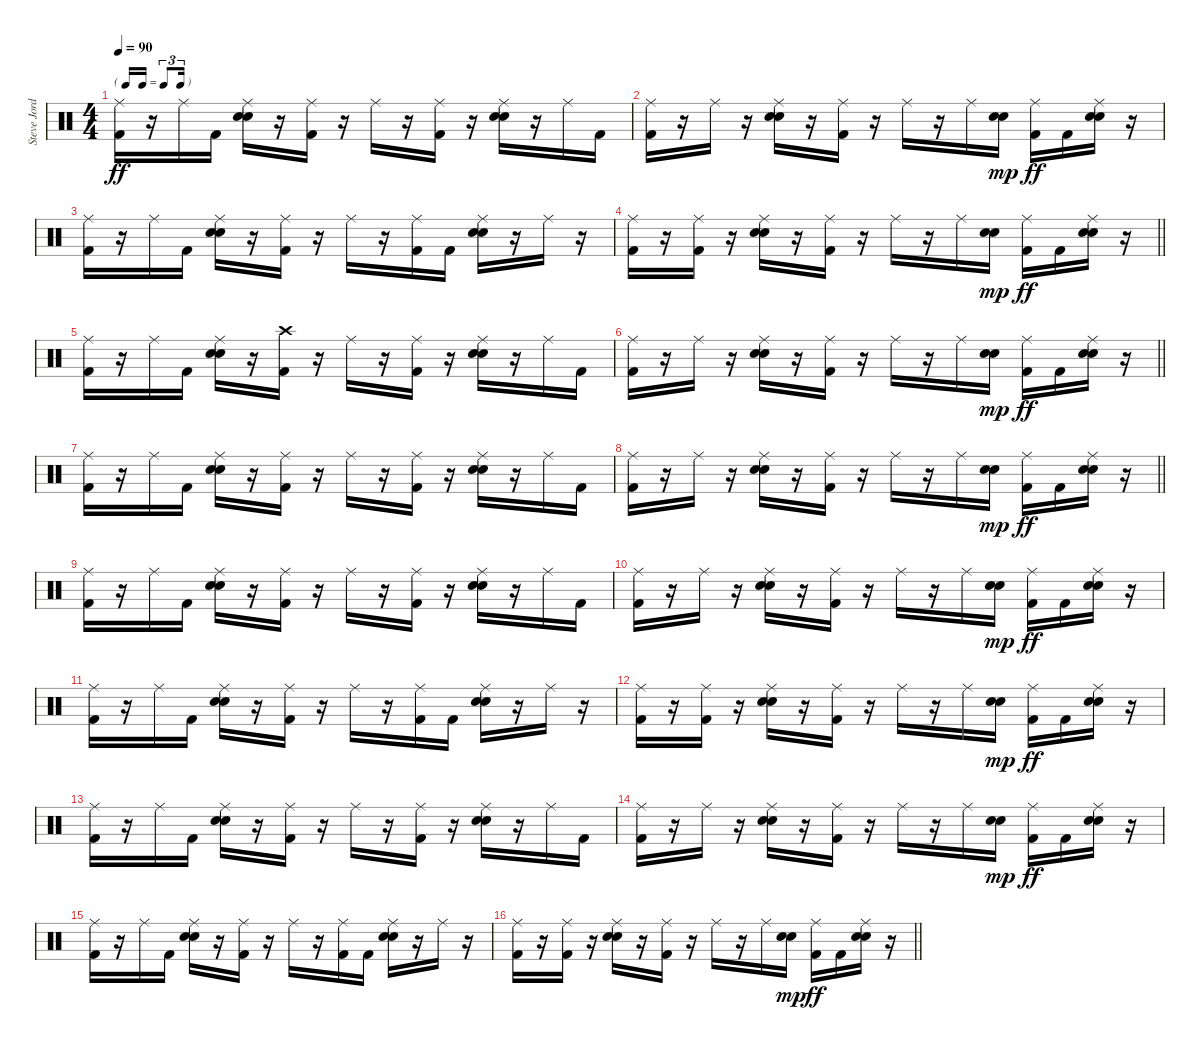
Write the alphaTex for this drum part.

\track ("Steve Jordan" "Steve Jord") {instrument percussion}
\staff {score}
\articulation defaults
\ts (4 4)
\tf triplet16th
\tempo 90
\clef neutral
\ks c
("Ride (middle)" "Kick (hit) 2").16{dy ff} r.16 "Ride (middle)".16 "Kick (hit) 2".16 ("Ride (middle)" "Electric Snare (hit)" "Snare (hit) 2").16 r.16 ("Ride (middle)" "Kick (hit) 2").16 r.16 "Ride (middle)".16 r.16 ("Ride (middle)" "Kick (hit) 2").16 r.16 ("Ride (middle)" "Electric Snare (hit)" "Snare (hit) 2").16 r.16 "Ride (middle)".16 "Kick (hit) 2".16 |
("Ride (middle)" "Kick (hit) 2").16 r.16 "Ride (middle)".16 r.16 ("Ride (middle)" "Electric Snare (hit)" "Snare (hit) 2").16 r.16 ("Ride (middle)" "Kick (hit) 2").16 r.16 "Ride (middle)".16 r.16 "Ride (middle)".16 ("Electric Snare (hit)" "Snare (hit) 2").16{dy mp} ("Ride (middle)" "Kick (hit) 2").16{dy ff} "Kick (hit) 2".16 ("Ride (middle)" "Electric Snare (hit)" "Snare (hit) 2").16 r.16 |
("Ride (middle)" "Kick (hit) 2").16 r.16 "Ride (middle)".16 "Kick (hit) 2".16 ("Ride (middle)" "Electric Snare (hit)" "Snare (hit) 2").16 r.16 ("Ride (middle)" "Kick (hit) 2").16 r.16 "Ride (middle)".16 r.16 ("Ride (middle)" "Kick (hit) 2").16 "Kick (hit) 2".16 ("Ride (middle)" "Electric Snare (hit)" "Snare (hit) 2").16 r.16 "Ride (middle)".16 r.16 |
\barLineRight lightlight
("Ride (middle)" "Kick (hit) 2").16 r.16 ("Ride (middle)" "Kick (hit) 2").16 r.16 ("Ride (middle)" "Electric Snare (hit)" "Snare (hit) 2").16 r.16 ("Ride (middle)" "Kick (hit) 2").16 r.16 "Ride (middle)".16 r.16 "Ride (middle)".16 ("Electric Snare (hit)" "Snare (hit) 2").16{dy mp} ("Ride (middle)" "Kick (hit) 2").16{dy ff} "Kick (hit) 2".16 ("Ride (middle)" "Electric Snare (hit)" "Snare (hit) 2").16 r.16 |
("Ride (middle)" "Kick (hit) 2").16 r.16 "Ride (middle)".16 "Kick (hit) 2".16 ("Ride (middle)" "Electric Snare (hit)" "Snare (hit) 2").16 r.16 ("Crash high (hit)" "Kick (hit) 2").16 r.16 "Ride (middle)".16 r.16 ("Ride (middle)" "Kick (hit) 2").16 r.16 ("Ride (middle)" "Electric Snare (hit)" "Snare (hit) 2").16 r.16 "Ride (middle)".16 "Kick (hit) 2".16 |
\barLineRight lightlight
("Ride (middle)" "Kick (hit) 2").16 r.16 "Ride (middle)".16 r.16 ("Ride (middle)" "Electric Snare (hit)" "Snare (hit) 2").16 r.16 ("Ride (middle)" "Kick (hit) 2").16 r.16 "Ride (middle)".16 r.16 "Ride (middle)".16 ("Electric Snare (hit)" "Snare (hit) 2").16{dy mp} ("Ride (middle)" "Kick (hit) 2").16{dy ff} "Kick (hit) 2".16 ("Ride (middle)" "Electric Snare (hit)" "Snare (hit) 2").16 r.16 |
("Ride (middle)" "Kick (hit) 2").16 r.16 "Ride (middle)".16 "Kick (hit) 2".16 ("Ride (middle)" "Electric Snare (hit)" "Snare (hit) 2").16 r.16 ("Ride (middle)" "Kick (hit) 2").16 r.16 "Ride (middle)".16 r.16 ("Ride (middle)" "Kick (hit) 2").16 r.16 ("Ride (middle)" "Electric Snare (hit)" "Snare (hit) 2").16 r.16 "Ride (middle)".16 "Kick (hit) 2".16 |
\barLineRight lightlight
("Ride (middle)" "Kick (hit) 2").16 r.16 "Ride (middle)".16 r.16 ("Ride (middle)" "Electric Snare (hit)" "Snare (hit) 2").16 r.16 ("Ride (middle)" "Kick (hit) 2").16 r.16 "Ride (middle)".16 r.16 "Ride (middle)".16 ("Electric Snare (hit)" "Snare (hit) 2").16{dy mp} ("Ride (middle)" "Kick (hit) 2").16{dy ff} "Kick (hit) 2".16 ("Ride (middle)" "Electric Snare (hit)" "Snare (hit) 2").16 r.16 |
("Ride (middle)" "Kick (hit) 2").16 r.16 "Ride (middle)".16 "Kick (hit) 2".16 ("Ride (middle)" "Electric Snare (hit)" "Snare (hit) 2").16 r.16 ("Ride (middle)" "Kick (hit) 2").16 r.16 "Ride (middle)".16 r.16 ("Ride (middle)" "Kick (hit) 2").16 r.16 ("Ride (middle)" "Electric Snare (hit)" "Snare (hit) 2").16 r.16 "Ride (middle)".16 "Kick (hit) 2".16 |
("Ride (middle)" "Kick (hit) 2").16 r.16 "Ride (middle)".16 r.16 ("Ride (middle)" "Electric Snare (hit)" "Snare (hit) 2").16 r.16 ("Ride (middle)" "Kick (hit) 2").16 r.16 "Ride (middle)".16 r.16 "Ride (middle)".16 ("Electric Snare (hit)" "Snare (hit) 2").16{dy mp} ("Ride (middle)" "Kick (hit) 2").16{dy ff} "Kick (hit) 2".16 ("Ride (middle)" "Electric Snare (hit)" "Snare (hit) 2").16 r.16 |
("Ride (middle)" "Kick (hit) 2").16 r.16 "Ride (middle)".16 "Kick (hit) 2".16 ("Ride (middle)" "Electric Snare (hit)" "Snare (hit) 2").16 r.16 ("Ride (middle)" "Kick (hit) 2").16 r.16 "Ride (middle)".16 r.16 ("Ride (middle)" "Kick (hit) 2").16 "Kick (hit) 2".16 ("Ride (middle)" "Electric Snare (hit)" "Snare (hit) 2").16 r.16 "Ride (middle)".16 r.16 |
("Ride (middle)" "Kick (hit) 2").16 r.16 ("Ride (middle)" "Kick (hit) 2").16 r.16 ("Ride (middle)" "Electric Snare (hit)" "Snare (hit) 2").16 r.16 ("Ride (middle)" "Kick (hit) 2").16 r.16 "Ride (middle)".16 r.16 "Ride (middle)".16 ("Electric Snare (hit)" "Snare (hit) 2").16{dy mp} ("Ride (middle)" "Kick (hit) 2").16{dy ff} "Kick (hit) 2".16 ("Ride (middle)" "Electric Snare (hit)" "Snare (hit) 2").16 r.16 |
("Ride (middle)" "Kick (hit) 2").16 r.16 "Ride (middle)".16 "Kick (hit) 2".16 ("Ride (middle)" "Electric Snare (hit)" "Snare (hit) 2").16 r.16 ("Ride (middle)" "Kick (hit) 2").16 r.16 "Ride (middle)".16 r.16 ("Ride (middle)" "Kick (hit) 2").16 r.16 ("Ride (middle)" "Electric Snare (hit)" "Snare (hit) 2").16 r.16 "Ride (middle)".16 "Kick (hit) 2".16 |
("Ride (middle)" "Kick (hit) 2").16 r.16 "Ride (middle)".16 r.16 ("Ride (middle)" "Electric Snare (hit)" "Snare (hit) 2").16 r.16 ("Ride (middle)" "Kick (hit) 2").16 r.16 "Ride (middle)".16 r.16 "Ride (middle)".16 ("Electric Snare (hit)" "Snare (hit) 2").16{dy mp} ("Ride (middle)" "Kick (hit) 2").16{dy ff} "Kick (hit) 2".16 ("Ride (middle)" "Electric Snare (hit)" "Snare (hit) 2").16 r.16 |
("Ride (middle)" "Kick (hit) 2").16 r.16 "Ride (middle)".16 "Kick (hit) 2".16 ("Ride (middle)" "Electric Snare (hit)" "Snare (hit) 2").16 r.16 ("Ride (middle)" "Kick (hit) 2").16 r.16 "Ride (middle)".16 r.16 ("Ride (middle)" "Kick (hit) 2").16 "Kick (hit) 2".16 ("Ride (middle)" "Electric Snare (hit)" "Snare (hit) 2").16 r.16 "Ride (middle)".16 r.16 |
\barLineRight lightlight
("Ride (middle)" "Kick (hit) 2").16 r.16 ("Ride (middle)" "Kick (hit) 2").16 r.16 ("Ride (middle)" "Electric Snare (hit)" "Snare (hit) 2").16 r.16 ("Ride (middle)" "Kick (hit) 2").16 r.16 "Ride (middle)".16 r.16 "Ride (middle)".16 ("Electric Snare (hit)" "Snare (hit) 2").16{dy mp} ("Ride (middle)" "Kick (hit) 2").16{dy ff} "Kick (hit) 2".16 ("Ride (middle)" "Electric Snare (hit)" "Snare (hit) 2").16 r.16
